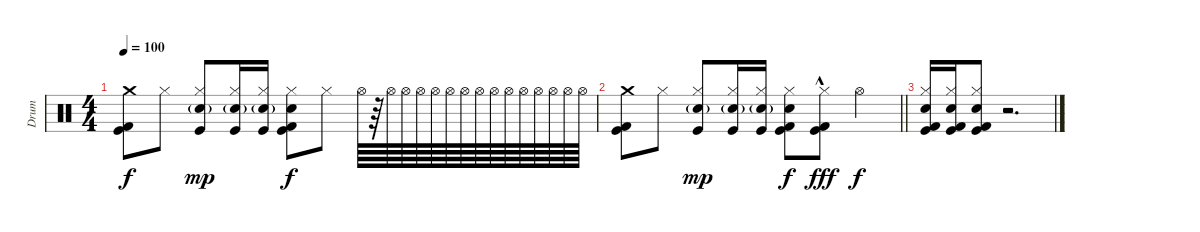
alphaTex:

\track ("Drum" "Drum") {instrument percussion}
\staff {score}
\articulation defaults
\ts (4 4)
\tempo 100
\clef neutral
\ks c
("Crash medium (hit)" "Kick (hit) 2" "Kick (hit)").8{dy f} "Hi-Hat (closed)".8 ("Hi-Hat (closed)" "Electric Snare (hit)"{g} "Kick (hit)").8{dy mp} ("Hi-Hat (closed)" "Electric Snare (hit)"{g} "Kick (hit)").16 ("Hi-Hat (closed)" "Electric Snare (hit)"{g} "Kick (hit)").16 ("Hi-Hat (closed)" "Snare (hit) 2" "Kick (hit) 2" "Kick (hit)").8{dy f} "Hi-Hat (closed)".8 "Hi-Hat (open)".64 r.64 "Hi-Hat (open)".64 "Hi-Hat (open)".64 "Hi-Hat (open)".64 "Hi-Hat (open)".64 "Hi-Hat (open)".64 "Hi-Hat (open)".64 "Hi-Hat (open)".64 "Hi-Hat (open)".64 "Hi-Hat (open)".64 "Hi-Hat (open)".64 "Hi-Hat (open)".64 "Hi-Hat (open)".64 "Hi-Hat (open)".64 "Hi-Hat (open)".64 |
\barLineRight lightlight
("Crash medium (hit)" "Kick (hit) 2" "Kick (hit)").8 "Hi-Hat (closed)".8 ("Hi-Hat (closed)" "Electric Snare (hit)"{g} "Kick (hit)").8{dy mp} ("Hi-Hat (closed)" "Electric Snare (hit)"{g} "Kick (hit)").16 ("Hi-Hat (closed)" "Electric Snare (hit)"{g} "Kick (hit)").16 ("Hi-Hat (closed)" "Snare (hit) 2" "Kick (hit) 2" "Kick (hit)").8{dy f} ("Hi-Hat (closed)"{hac} "Kick (hit) 2" "Kick (hit)").8{dy fff} "Hi-Hat (open)".4{dy f} |
\section ("" "")
("Hi-Hat (closed)" "Snare (hit) 2" "Kick (hit) 2" "Kick (hit)").16 ("Hi-Hat (closed)" "Snare (hit) 2" "Kick (hit) 2" "Kick (hit)").16 ("Hi-Hat (closed)" "Snare (hit) 2" "Kick (hit) 2" "Kick (hit)").8 r.2{d}
